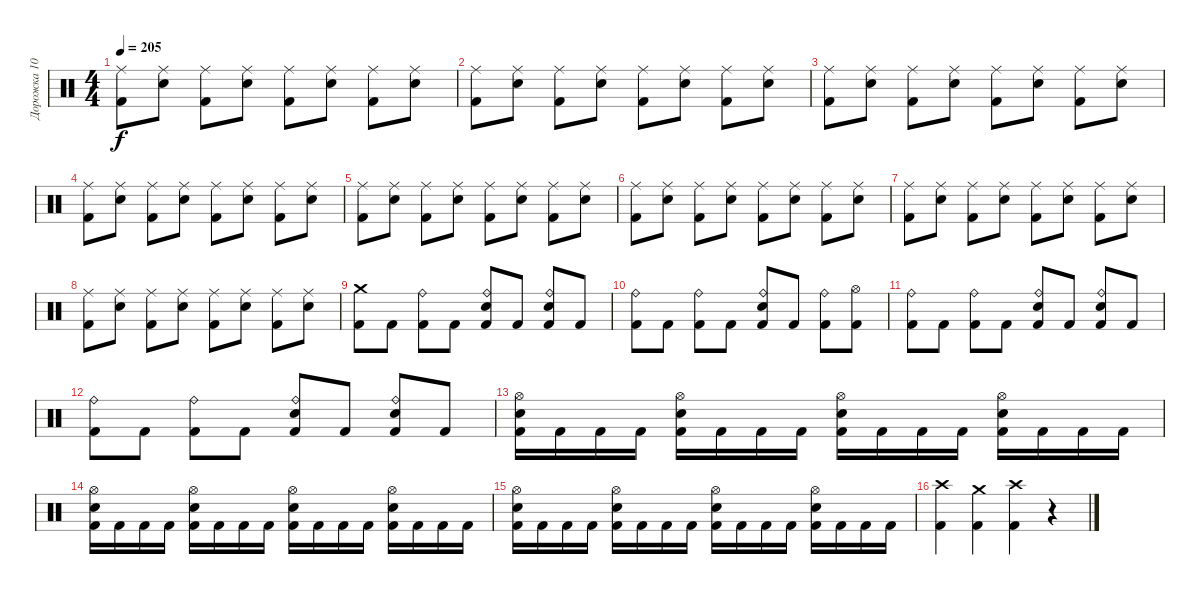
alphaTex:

\track ("Дорожка 10" "Дорожка 10") {instrument percussion}
\staff {score}
\articulation defaults
\ts (4 4)
\tempo 205
\clef neutral
\ks c
("Ride (middle)" "Kick (hit) 2").8{dy f} ("Ride (middle)" "Snare (hit) 2").8 ("Ride (middle)" "Kick (hit) 2").8 ("Ride (middle)" "Snare (hit) 2").8 ("Ride (middle)" "Kick (hit) 2").8 ("Ride (middle)" "Snare (hit) 2").8 ("Ride (middle)" "Kick (hit) 2").8 ("Ride (middle)" "Snare (hit) 2").8 |
("Ride (middle)" "Kick (hit) 2").8 ("Ride (middle)" "Snare (hit) 2").8 ("Ride (middle)" "Kick (hit) 2").8 ("Ride (middle)" "Snare (hit) 2").8 ("Ride (middle)" "Kick (hit) 2").8 ("Ride (middle)" "Snare (hit) 2").8 ("Ride (middle)" "Kick (hit) 2").8 ("Ride (middle)" "Snare (hit) 2").8 |
("Ride (middle)" "Kick (hit) 2").8 ("Ride (middle)" "Snare (hit) 2").8 ("Ride (middle)" "Kick (hit) 2").8 ("Ride (middle)" "Snare (hit) 2").8 ("Ride (middle)" "Kick (hit) 2").8 ("Ride (middle)" "Snare (hit) 2").8 ("Ride (middle)" "Kick (hit) 2").8 ("Ride (middle)" "Snare (hit) 2").8 |
("Ride (middle)" "Kick (hit) 2").8 ("Ride (middle)" "Snare (hit) 2").8 ("Ride (middle)" "Kick (hit) 2").8 ("Ride (middle)" "Snare (hit) 2").8 ("Ride (middle)" "Kick (hit) 2").8 ("Ride (middle)" "Snare (hit) 2").8 ("Ride (middle)" "Kick (hit) 2").8 ("Ride (middle)" "Snare (hit) 2").8 |
("Ride (middle)" "Kick (hit) 2").8 ("Ride (middle)" "Snare (hit) 2").8 ("Ride (middle)" "Kick (hit) 2").8 ("Ride (middle)" "Snare (hit) 2").8 ("Ride (middle)" "Kick (hit) 2").8 ("Ride (middle)" "Snare (hit) 2").8 ("Ride (middle)" "Kick (hit) 2").8 ("Ride (middle)" "Snare (hit) 2").8 |
("Ride (middle)" "Kick (hit) 2").8 ("Ride (middle)" "Snare (hit) 2").8 ("Ride (middle)" "Kick (hit) 2").8 ("Ride (middle)" "Snare (hit) 2").8 ("Ride (middle)" "Kick (hit) 2").8 ("Ride (middle)" "Snare (hit) 2").8 ("Ride (middle)" "Kick (hit) 2").8 ("Ride (middle)" "Snare (hit) 2").8 |
("Ride (middle)" "Kick (hit) 2").8 ("Ride (middle)" "Snare (hit) 2").8 ("Ride (middle)" "Kick (hit) 2").8 ("Ride (middle)" "Snare (hit) 2").8 ("Ride (middle)" "Kick (hit) 2").8 ("Ride (middle)" "Snare (hit) 2").8 ("Ride (middle)" "Kick (hit) 2").8 ("Ride (middle)" "Snare (hit) 2").8 |
("Ride (middle)" "Kick (hit) 2").8 ("Ride (middle)" "Snare (hit) 2").8 ("Ride (middle)" "Kick (hit) 2").8 ("Ride (middle)" "Snare (hit) 2").8 ("Ride (middle)" "Kick (hit) 2").8 ("Ride (middle)" "Snare (hit) 2").8 ("Ride (middle)" "Kick (hit) 2").8 ("Ride (middle)" "Snare (hit) 2").8 |
("Crash medium (hit)" "Kick (hit) 2").8 "Kick (hit) 2".8 ("Ride (bell)" "Kick (hit) 2").8 "Kick (hit) 2".8 ("Ride (bell)" "Electric Snare (hit)" "Kick (hit) 2").8 "Kick (hit) 2".8 ("Ride (bell)" "Electric Snare (hit)" "Kick (hit) 2").8 "Kick (hit) 2".8 |
("Ride (bell)" "Kick (hit) 2").8 "Kick (hit) 2".8 ("Ride (bell)" "Kick (hit) 2").8 "Kick (hit) 2".8 ("Ride (bell)" "Electric Snare (hit)" "Kick (hit) 2").8 "Kick (hit) 2".8 ("Ride (bell)" "Kick (hit) 2").8 ("Hi-Hat (open)" "Kick (hit) 2").8 |
("Ride (bell)" "Kick (hit) 2").8 "Kick (hit) 2".8 ("Ride (bell)" "Kick (hit) 2").8 "Kick (hit) 2".8 ("Ride (bell)" "Electric Snare (hit)" "Kick (hit) 2").8 "Kick (hit) 2".8 ("Ride (bell)" "Electric Snare (hit)" "Kick (hit) 2").8 "Kick (hit) 2".8 |
("Ride (bell)" "Kick (hit) 2").8 "Kick (hit) 2".8 ("Ride (bell)" "Kick (hit) 2").8 "Kick (hit) 2".8 ("Ride (bell)" "Electric Snare (hit)" "Kick (hit) 2").8 "Kick (hit) 2".8 ("Ride (bell)" "Electric Snare (hit)" "Kick (hit) 2").8 "Kick (hit) 2".8 |
("Hi-Hat (open)" "Electric Snare (hit)" "Kick (hit) 2").16 "Kick (hit) 2".16 "Kick (hit) 2".16 "Kick (hit) 2".16 ("Hi-Hat (open)" "Electric Snare (hit)" "Kick (hit) 2").16 "Kick (hit) 2".16 "Kick (hit) 2".16 "Kick (hit) 2".16 ("Hi-Hat (open)" "Electric Snare (hit)" "Kick (hit) 2").16 "Kick (hit) 2".16 "Kick (hit) 2".16 "Kick (hit) 2".16 ("Hi-Hat (open)" "Electric Snare (hit)" "Kick (hit) 2").16 "Kick (hit) 2".16 "Kick (hit) 2".16 "Kick (hit) 2".16 |
("Hi-Hat (open)" "Electric Snare (hit)" "Kick (hit) 2").16 "Kick (hit) 2".16 "Kick (hit) 2".16 "Kick (hit) 2".16 ("Hi-Hat (open)" "Electric Snare (hit)" "Kick (hit) 2").16 "Kick (hit) 2".16 "Kick (hit) 2".16 "Kick (hit) 2".16 ("Hi-Hat (open)" "Electric Snare (hit)" "Kick (hit) 2").16 "Kick (hit) 2".16 "Kick (hit) 2".16 "Kick (hit) 2".16 ("Hi-Hat (open)" "Electric Snare (hit)" "Kick (hit) 2").16 "Kick (hit) 2".16 "Kick (hit) 2".16 "Kick (hit) 2".16 |
("Hi-Hat (open)" "Electric Snare (hit)" "Kick (hit) 2").16 "Kick (hit) 2".16 "Kick (hit) 2".16 "Kick (hit) 2".16 ("Hi-Hat (open)" "Electric Snare (hit)" "Kick (hit) 2").16 "Kick (hit) 2".16 "Kick (hit) 2".16 "Kick (hit) 2".16 ("Hi-Hat (open)" "Electric Snare (hit)" "Kick (hit) 2").16 "Kick (hit) 2".16 "Kick (hit) 2".16 "Kick (hit) 2".16 ("Hi-Hat (open)" "Electric Snare (hit)" "Kick (hit) 2").16 "Kick (hit) 2".16 "Kick (hit) 2".16 "Kick (hit) 2".16 |
("Crash high (hit)" "Kick (hit) 2").4 ("Crash medium (hit)" "Kick (hit) 2").4 ("Crash high (hit)" "Kick (hit) 2").4 r.4
